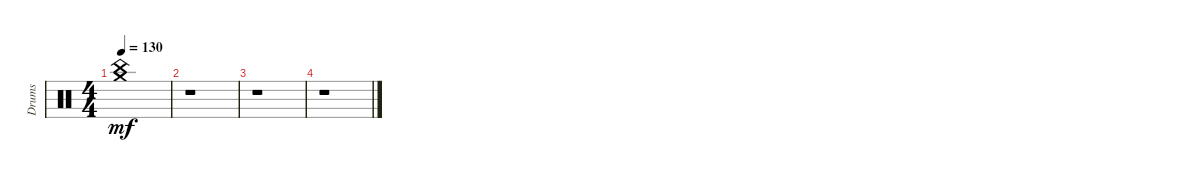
\track ("Drums" "Drums") {instrument percussion}
\staff {score}
\articulation defaults
\ts (4 4)
\tempo 130
\clef neutral
\ks c
("Crash medium (hit)" "China (hit)").1{dy mf} |
r.1 |
r.1 |
r.1
